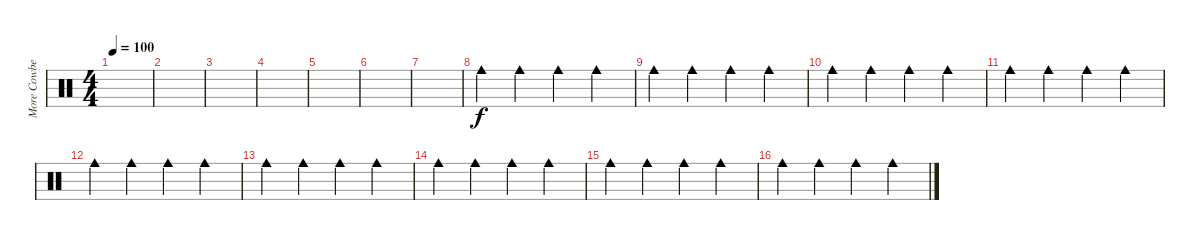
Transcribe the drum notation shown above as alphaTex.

\track ("More Cowbell!!" "More Cowbe") {instrument percussion}
\staff {score}
\articulation defaults
\ts (4 4)
\tempo 100
\clef neutral
\ks c
|
|
|
|
|
|
|
"Cowbell medium (hit)".4 "Cowbell medium (hit)".4 "Cowbell medium (hit)".4 "Cowbell medium (hit)".4 |
"Cowbell medium (hit)".4 "Cowbell medium (hit)".4 "Cowbell medium (hit)".4 "Cowbell medium (hit)".4 |
"Cowbell medium (hit)".4 "Cowbell medium (hit)".4 "Cowbell medium (hit)".4 "Cowbell medium (hit)".4 |
"Cowbell medium (hit)".4 "Cowbell medium (hit)".4 "Cowbell medium (hit)".4 "Cowbell medium (hit)".4 |
"Cowbell medium (hit)".4 "Cowbell medium (hit)".4 "Cowbell medium (hit)".4 "Cowbell medium (hit)".4 |
"Cowbell medium (hit)".4 "Cowbell medium (hit)".4 "Cowbell medium (hit)".4 "Cowbell medium (hit)".4 |
"Cowbell medium (hit)".4 "Cowbell medium (hit)".4 "Cowbell medium (hit)".4 "Cowbell medium (hit)".4 |
"Cowbell medium (hit)".4 "Cowbell medium (hit)".4 "Cowbell medium (hit)".4 "Cowbell medium (hit)".4 |
"Cowbell medium (hit)".4 "Cowbell medium (hit)".4 "Cowbell medium (hit)".4 "Cowbell medium (hit)".4
